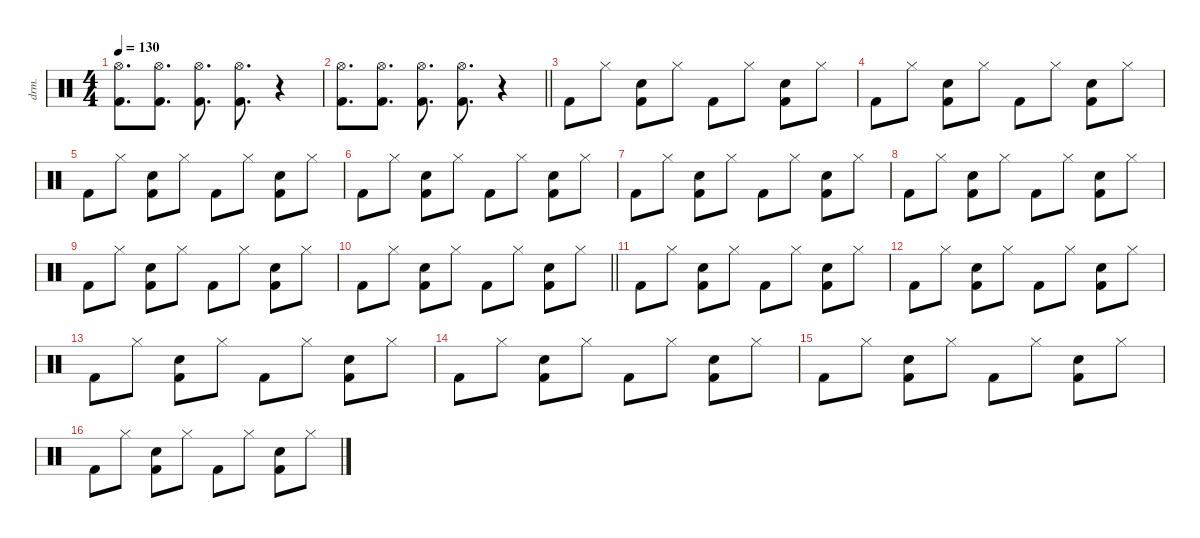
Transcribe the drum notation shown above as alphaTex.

\defaultSystemsLayout 4
\hideDynamics
\bracketExtendMode nobrackets
\otherSystemsTrackNameOrientation horizontal
\track ("Percussion" "drm.") {defaultSystemsLayout 4 instrument percussion}
\staff {score}
\articulation defaults
\ts (4 4)
\tempo 130
\clef neutral
\ks c
("Hi-Hat (open)" "Kick (hit) 2").8{d dy f beam Down} ("Hi-Hat (open)" "Kick (hit) 2").8{d beam Down} ("Hi-Hat (open)" "Kick (hit) 2").8{d beam Down} ("Hi-Hat (open)" "Kick (hit) 2").8{d beam Down} r.4{beam Down} |
\barLineRight lightlight
("Hi-Hat (open)" "Kick (hit) 2").8{d beam Down} ("Hi-Hat (open)" "Kick (hit) 2").8{d beam Down} ("Hi-Hat (open)" "Kick (hit) 2").8{d beam Down} ("Hi-Hat (open)" "Kick (hit) 2").8{d beam Down} r.4{beam Down} |
"Kick (hit) 2".8{beam Down} "Hi-Hat (closed)".8{beam Down} ("Snare (hit) 2" "Kick (hit) 2").8{beam Down} "Hi-Hat (closed)".8{beam Down} "Kick (hit) 2".8{beam Down} "Hi-Hat (closed)".8{beam Down} ("Snare (hit) 2" "Kick (hit) 2").8{beam Down} "Hi-Hat (closed)".8{beam Down} |
"Kick (hit) 2".8{beam Down} "Hi-Hat (closed)".8{beam Down} ("Snare (hit) 2" "Kick (hit) 2").8{beam Down} "Hi-Hat (closed)".8{beam Down} "Kick (hit) 2".8{beam Down} "Hi-Hat (closed)".8{beam Down} ("Snare (hit) 2" "Kick (hit) 2").8{beam Down} "Hi-Hat (closed)".8{beam Down} |
"Kick (hit) 2".8{beam Down} "Hi-Hat (closed)".8{beam Down} ("Snare (hit) 2" "Kick (hit) 2").8{beam Down} "Hi-Hat (closed)".8{beam Down} "Kick (hit) 2".8{beam Down} "Hi-Hat (closed)".8{beam Down} ("Snare (hit) 2" "Kick (hit) 2").8{beam Down} "Hi-Hat (closed)".8{beam Down} |
"Kick (hit) 2".8{beam Down} "Hi-Hat (closed)".8{beam Down} ("Snare (hit) 2" "Kick (hit) 2").8{beam Down} "Hi-Hat (closed)".8{beam Down} "Kick (hit) 2".8{beam Down} "Hi-Hat (closed)".8{beam Down} ("Snare (hit) 2" "Kick (hit) 2").8{beam Down} "Hi-Hat (closed)".8{beam Down} |
"Kick (hit) 2".8{beam Down} "Hi-Hat (closed)".8{beam Down} ("Snare (hit) 2" "Kick (hit) 2").8{beam Down} "Hi-Hat (closed)".8{beam Down} "Kick (hit) 2".8{beam Down} "Hi-Hat (closed)".8{beam Down} ("Snare (hit) 2" "Kick (hit) 2").8{beam Down} "Hi-Hat (closed)".8{beam Down} |
"Kick (hit) 2".8{beam Down} "Hi-Hat (closed)".8{beam Down} ("Snare (hit) 2" "Kick (hit) 2").8{beam Down} "Hi-Hat (closed)".8{beam Down} "Kick (hit) 2".8{beam Down} "Hi-Hat (closed)".8{beam Down} ("Snare (hit) 2" "Kick (hit) 2").8{beam Down} "Hi-Hat (closed)".8{beam Down} |
"Kick (hit) 2".8{beam Down} "Hi-Hat (closed)".8{beam Down} ("Snare (hit) 2" "Kick (hit) 2").8{beam Down} "Hi-Hat (closed)".8{beam Down} "Kick (hit) 2".8{beam Down} "Hi-Hat (closed)".8{beam Down} ("Snare (hit) 2" "Kick (hit) 2").8{beam Down} "Hi-Hat (closed)".8{beam Down} |
\barLineRight lightlight "Kick (hit) 2".8{beam Down} "Hi-Hat (closed)".8{beam Down}
("Snare (hit) 2" "Kick (hit) 2").8{beam Down} "Hi-Hat (closed)".8{beam Down} "Kick (hit) 2".8{beam Down} "Hi-Hat (closed)".8{beam Down} ("Snare (hit) 2" "Kick (hit) 2").8{beam Down} "Hi-Hat (closed)".8{beam Down} |
"Kick (hit) 2".8{beam Down} "Hi-Hat (closed)".8{beam Down} ("Snare (hit) 2" "Kick (hit) 2").8{beam Down} "Hi-Hat (closed)".8{beam Down} "Kick (hit) 2".8{beam Down} "Hi-Hat (closed)".8{beam Down} ("Snare (hit) 2" "Kick (hit) 2").8{beam Down} "Hi-Hat (closed)".8{beam Down} |
"Kick (hit) 2".8{beam Down} "Hi-Hat (closed)".8{beam Down} ("Snare (hit) 2" "Kick (hit) 2").8{beam Down} "Hi-Hat (closed)".8{beam Down} "Kick (hit) 2".8{beam Down} "Hi-Hat (closed)".8{beam Down} ("Snare (hit) 2" "Kick (hit) 2").8{beam Down} "Hi-Hat (closed)".8{beam Down} |
"Kick (hit) 2".8{beam Down} "Hi-Hat (closed)".8{beam Down} ("Snare (hit) 2" "Kick (hit) 2").8{beam Down} "Hi-Hat (closed)".8{beam Down} "Kick (hit) 2".8{beam Down} "Hi-Hat (closed)".8{beam Down} ("Snare (hit) 2" "Kick (hit) 2").8{beam Down} "Hi-Hat (closed)".8{beam Down} |
"Kick (hit) 2".8{beam Down} "Hi-Hat (closed)".8{beam Down} ("Snare (hit) 2" "Kick (hit) 2").8{beam Down} "Hi-Hat (closed)".8{beam Down} "Kick (hit) 2".8{beam Down} "Hi-Hat (closed)".8{beam Down} ("Snare (hit) 2" "Kick (hit) 2").8{beam Down} "Hi-Hat (closed)".8{beam Down} |
"Kick (hit) 2".8{beam Down} "Hi-Hat (closed)".8{beam Down} ("Snare (hit) 2" "Kick (hit) 2").8{beam Down} "Hi-Hat (closed)".8{beam Down} "Kick (hit) 2".8{beam Down} "Hi-Hat (closed)".8{beam Down} ("Snare (hit) 2" "Kick (hit) 2").8{beam Down} "Hi-Hat (closed)".8{beam Down} |
"Kick (hit) 2".8{beam Down} "Hi-Hat (closed)".8{beam Down} ("Snare (hit) 2" "Kick (hit) 2").8{beam Down} "Hi-Hat (closed)".8{beam Down} "Kick (hit) 2".8{beam Down} "Hi-Hat (closed)".8{beam Down} ("Snare (hit) 2" "Kick (hit) 2").8{beam Down} "Hi-Hat (closed)".8{beam Down}
